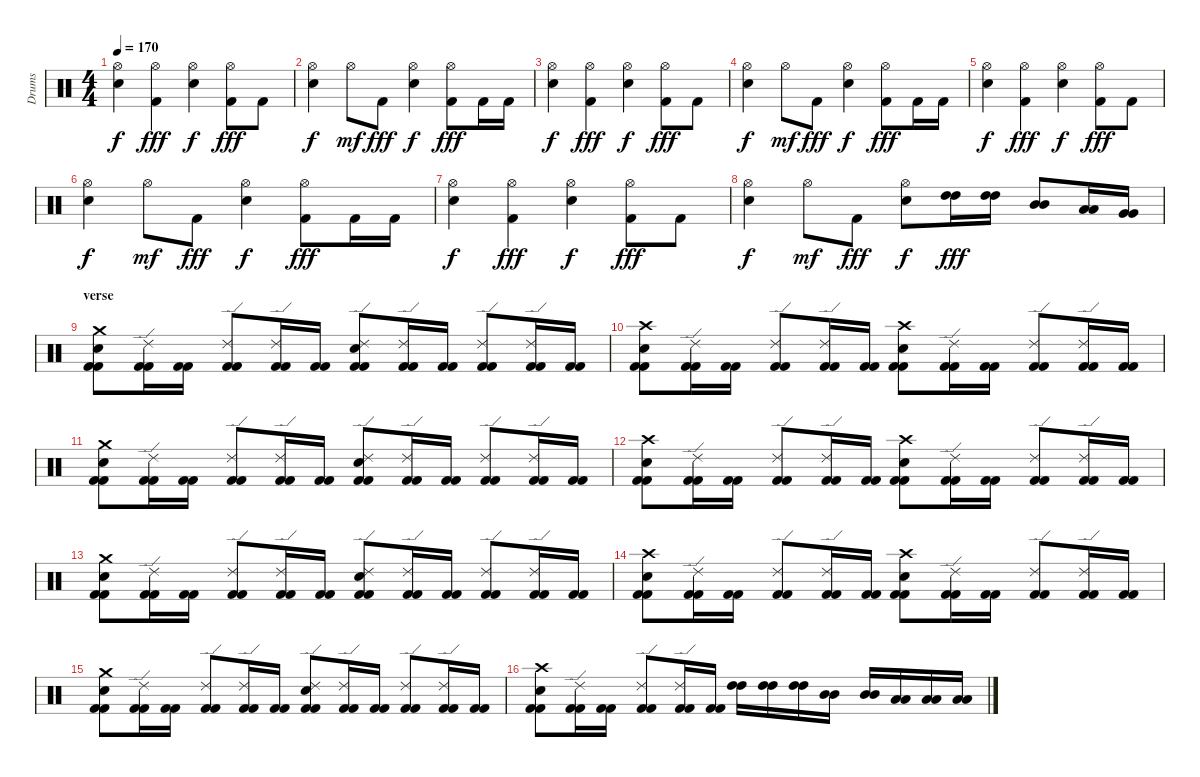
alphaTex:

\track ("Drums" "Drums") {instrument percussion}
\staff {score}
\articulation defaults
\ts (4 4)
\tempo 170
\clef neutral
\ks c
("Hi-Hat (open)" "Electric Snare (hit)").4{dy f} ("Hi-Hat (open)" "Kick (hit) 2").4{dy fff} ("Hi-Hat (open)" "Electric Snare (hit)").4{dy f} ("Hi-Hat (open)" "Kick (hit) 2").8{dy fff} "Kick (hit) 2".8 |
("Hi-Hat (open)" "Electric Snare (hit)").4{dy f} "Hi-Hat (open)".8{dy mf} "Kick (hit) 2".8{dy fff} ("Hi-Hat (open)" "Electric Snare (hit)").4{dy f} ("Hi-Hat (open)" "Kick (hit) 2").8{dy fff} "Kick (hit) 2".16 "Kick (hit) 2".16 |
("Hi-Hat (open)" "Electric Snare (hit)").4{dy f} ("Hi-Hat (open)" "Kick (hit) 2").4{dy fff} ("Hi-Hat (open)" "Electric Snare (hit)").4{dy f} ("Hi-Hat (open)" "Kick (hit) 2").8{dy fff} "Kick (hit) 2".8 |
("Hi-Hat (open)" "Electric Snare (hit)").4{dy f} "Hi-Hat (open)".8{dy mf} "Kick (hit) 2".8{dy fff} ("Hi-Hat (open)" "Electric Snare (hit)").4{dy f} ("Hi-Hat (open)" "Kick (hit) 2").8{dy fff} "Kick (hit) 2".16 "Kick (hit) 2".16 |
("Hi-Hat (open)" "Electric Snare (hit)").4{dy f} ("Hi-Hat (open)" "Kick (hit) 2").4{dy fff} ("Hi-Hat (open)" "Electric Snare (hit)").4{dy f} ("Hi-Hat (open)" "Kick (hit) 2").8{dy fff} "Kick (hit) 2".8 |
("Hi-Hat (open)" "Electric Snare (hit)").4{dy f} "Hi-Hat (open)".8{dy mf} "Kick (hit) 2".8{dy fff} ("Hi-Hat (open)" "Electric Snare (hit)").4{dy f} ("Hi-Hat (open)" "Kick (hit) 2").8{dy fff} "Kick (hit) 2".16 "Kick (hit) 2".16 |
("Hi-Hat (open)" "Electric Snare (hit)").4{dy f} ("Hi-Hat (open)" "Kick (hit) 2").4{dy fff} ("Hi-Hat (open)" "Electric Snare (hit)").4{dy f} ("Hi-Hat (open)" "Kick (hit) 2").8{dy fff} "Kick (hit) 2".8 |
("Hi-Hat (open)" "Electric Snare (hit)").4{dy f} "Hi-Hat (open)".8{dy mf} "Kick (hit) 2".8{dy fff} ("Hi-Hat (open)" "Electric Snare (hit)").8{dy f} ("High Tom (hit)" "High Tom (hit)").16{dy fff} ("High Tom (hit)" "High Tom (hit)").16 ("Mid Tom (hit)" "Mid Tom (hit)").8 ("Low Tom (hit)" "Low Tom (hit)").16 ("Very Low Tom (hit)" "Very Low Tom (hit)").16 |
\section ("" "verse")
("Crash medium (hit)" "Electric Snare (hit)" "Kick (hit) 2" "Kick (hit) 2").8 ("Ride (edge) 2" "Kick (hit) 2" "Kick (hit) 2").16 ("Kick (hit) 2" "Kick (hit) 2").16 ("Ride (edge) 2" "Kick (hit) 2" "Kick (hit) 2").8 ("Ride (edge) 2" "Kick (hit) 2" "Kick (hit) 2").16 ("Kick (hit) 2" "Kick (hit) 2").16 ("Ride (edge) 2" "Electric Snare (hit)" "Kick (hit) 2" "Kick (hit) 2").8 ("Ride (edge) 2" "Kick (hit) 2" "Kick (hit) 2").16 ("Kick (hit) 2" "Kick (hit) 2").16 ("Ride (edge) 2" "Kick (hit) 2" "Kick (hit) 2").8 ("Ride (edge) 2" "Kick (hit) 2" "Kick (hit) 2").16 ("Kick (hit) 2" "Kick (hit) 2").16 |
("Crash high (hit)" "Electric Snare (hit)" "Kick (hit) 2" "Kick (hit) 2").8 ("Ride (edge) 2" "Kick (hit) 2" "Kick (hit) 2").16 ("Kick (hit) 2" "Kick (hit) 2").16 ("Ride (edge) 2" "Kick (hit) 2" "Kick (hit) 2").8 ("Ride (edge) 2" "Kick (hit) 2" "Kick (hit) 2").16 ("Kick (hit) 2" "Kick (hit) 2").16 ("Crash high (hit)" "Electric Snare (hit)" "Kick (hit) 2" "Kick (hit) 2").8 ("Ride (edge) 2" "Kick (hit) 2" "Kick (hit) 2").16 ("Kick (hit) 2" "Kick (hit) 2").16 ("Ride (edge) 2" "Kick (hit) 2" "Kick (hit) 2").8 ("Ride (edge) 2" "Kick (hit) 2" "Kick (hit) 2").16 ("Kick (hit) 2" "Kick (hit) 2").16 |
("Crash medium (hit)" "Electric Snare (hit)" "Kick (hit) 2" "Kick (hit) 2").8 ("Ride (edge) 2" "Kick (hit) 2" "Kick (hit) 2").16 ("Kick (hit) 2" "Kick (hit) 2").16 ("Ride (edge) 2" "Kick (hit) 2" "Kick (hit) 2").8 ("Ride (edge) 2" "Kick (hit) 2" "Kick (hit) 2").16 ("Kick (hit) 2" "Kick (hit) 2").16 ("Ride (edge) 2" "Electric Snare (hit)" "Kick (hit) 2" "Kick (hit) 2").8 ("Ride (edge) 2" "Kick (hit) 2" "Kick (hit) 2").16 ("Kick (hit) 2" "Kick (hit) 2").16 ("Ride (edge) 2" "Kick (hit) 2" "Kick (hit) 2").8 ("Ride (edge) 2" "Kick (hit) 2" "Kick (hit) 2").16 ("Kick (hit) 2" "Kick (hit) 2").16 |
("Crash high (hit)" "Electric Snare (hit)" "Kick (hit) 2" "Kick (hit) 2").8 ("Ride (edge) 2" "Kick (hit) 2" "Kick (hit) 2").16 ("Kick (hit) 2" "Kick (hit) 2").16 ("Ride (edge) 2" "Kick (hit) 2" "Kick (hit) 2").8 ("Ride (edge) 2" "Kick (hit) 2" "Kick (hit) 2").16 ("Kick (hit) 2" "Kick (hit) 2").16 ("Crash high (hit)" "Electric Snare (hit)" "Kick (hit) 2" "Kick (hit) 2").8 ("Ride (edge) 2" "Kick (hit) 2" "Kick (hit) 2").16 ("Kick (hit) 2" "Kick (hit) 2").16 ("Ride (edge) 2" "Kick (hit) 2" "Kick (hit) 2").8 ("Ride (edge) 2" "Kick (hit) 2" "Kick (hit) 2").16 ("Kick (hit) 2" "Kick (hit) 2").16 |
("Crash medium (hit)" "Electric Snare (hit)" "Kick (hit) 2" "Kick (hit) 2").8 ("Ride (edge) 2" "Kick (hit) 2" "Kick (hit) 2").16 ("Kick (hit) 2" "Kick (hit) 2").16 ("Ride (edge) 2" "Kick (hit) 2" "Kick (hit) 2").8 ("Ride (edge) 2" "Kick (hit) 2" "Kick (hit) 2").16 ("Kick (hit) 2" "Kick (hit) 2").16 ("Ride (edge) 2" "Electric Snare (hit)" "Kick (hit) 2" "Kick (hit) 2").8 ("Ride (edge) 2" "Kick (hit) 2" "Kick (hit) 2").16 ("Kick (hit) 2" "Kick (hit) 2").16 ("Ride (edge) 2" "Kick (hit) 2" "Kick (hit) 2").8 ("Ride (edge) 2" "Kick (hit) 2" "Kick (hit) 2").16 ("Kick (hit) 2" "Kick (hit) 2").16 |
("Crash high (hit)" "Electric Snare (hit)" "Kick (hit) 2" "Kick (hit) 2").8 ("Ride (edge) 2" "Kick (hit) 2" "Kick (hit) 2").16 ("Kick (hit) 2" "Kick (hit) 2").16 ("Ride (edge) 2" "Kick (hit) 2" "Kick (hit) 2").8 ("Ride (edge) 2" "Kick (hit) 2" "Kick (hit) 2").16 ("Kick (hit) 2" "Kick (hit) 2").16 ("Crash high (hit)" "Electric Snare (hit)" "Kick (hit) 2" "Kick (hit) 2").8 ("Ride (edge) 2" "Kick (hit) 2" "Kick (hit) 2").16 ("Kick (hit) 2" "Kick (hit) 2").16 ("Ride (edge) 2" "Kick (hit) 2" "Kick (hit) 2").8 ("Ride (edge) 2" "Kick (hit) 2" "Kick (hit) 2").16 ("Kick (hit) 2" "Kick (hit) 2").16 |
("Crash medium (hit)" "Electric Snare (hit)" "Kick (hit) 2" "Kick (hit) 2").8 ("Ride (edge) 2" "Kick (hit) 2" "Kick (hit) 2").16 ("Kick (hit) 2" "Kick (hit) 2").16 ("Ride (edge) 2" "Kick (hit) 2" "Kick (hit) 2").8 ("Ride (edge) 2" "Kick (hit) 2" "Kick (hit) 2").16 ("Kick (hit) 2" "Kick (hit) 2").16 ("Ride (edge) 2" "Electric Snare (hit)" "Kick (hit) 2" "Kick (hit) 2").8 ("Ride (edge) 2" "Kick (hit) 2" "Kick (hit) 2").16 ("Kick (hit) 2" "Kick (hit) 2").16 ("Ride (edge) 2" "Kick (hit) 2" "Kick (hit) 2").8 ("Ride (edge) 2" "Kick (hit) 2" "Kick (hit) 2").16 ("Kick (hit) 2" "Kick (hit) 2").16 |
("Crash high (hit)" "Electric Snare (hit)" "Kick (hit) 2" "Kick (hit) 2").8 ("Ride (edge) 2" "Kick (hit) 2" "Kick (hit) 2").16 ("Kick (hit) 2" "Kick (hit) 2").16 ("Ride (edge) 2" "Kick (hit) 2" "Kick (hit) 2").8 ("Ride (edge) 2" "Kick (hit) 2" "Kick (hit) 2").16 ("Kick (hit) 2" "Kick (hit) 2").16 ("High Tom (hit)" "High Tom (hit)").16 ("High Tom (hit)" "High Tom (hit)").16 ("High Tom (hit)" "High Tom (hit)").16 ("Mid Tom (hit)" "Mid Tom (hit)").16 ("Mid Tom (hit)" "Mid Tom (hit)").16 ("Low Tom (hit)" "Low Tom (hit)").16 ("Low Tom (hit)" "Low Tom (hit)").16 ("Low Tom (hit)" "Low Tom (hit)").16
